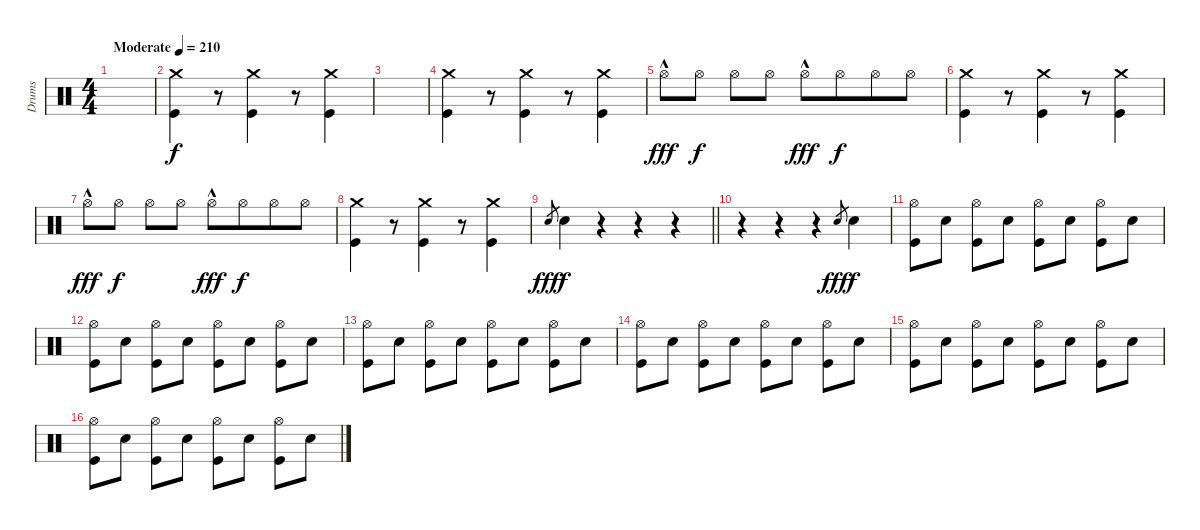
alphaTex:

\track ("Drums" "Drums") {instrument percussion}
\staff {score}
\articulation defaults
\ts (4 4)
\tempo (210 "Moderate")
\clef neutral
\ks c
|
("Crash medium (hit)" "Kick (hit)").4 r.8{beam merge} ("Crash medium (hit)" "Kick (hit)").4 r.8 ("Crash medium (hit)" "Kick (hit)").4 |
|
("Crash medium (hit)" "Kick (hit)").4 r.8{beam merge} ("Crash medium (hit)" "Kick (hit)").4 r.8 ("Crash medium (hit)" "Kick (hit)").4 |
"Hi-Hat (open)"{hac}.8{dy fff} "Hi-Hat (open)".8{dy f} "Hi-Hat (open)".8 "Hi-Hat (open)".8 "Hi-Hat (open)"{hac}.8{dy fff} "Hi-Hat (open)".8{dy f beam merge} "Hi-Hat (open)".8 "Hi-Hat (open)".8 |
("Crash medium (hit)" "Kick (hit)").4 r.8{beam merge} ("Crash medium (hit)" "Kick (hit)").4 r.8 ("Crash medium (hit)" "Kick (hit)").4 |
"Hi-Hat (open)"{hac}.8{dy fff} "Hi-Hat (open)".8{dy f} "Hi-Hat (open)".8 "Hi-Hat (open)".8 "Hi-Hat (open)"{hac}.8{dy fff} "Hi-Hat (open)".8{dy f beam merge} "Hi-Hat (open)".8 "Hi-Hat (open)".8 |
("Crash medium (hit)" "Kick (hit)").4 r.8{beam merge} ("Crash medium (hit)" "Kick (hit)").4 r.8 ("Crash medium (hit)" "Kick (hit)").4 |
\barLineRight lightlight "Snare (hit)".8{gr dy fff} "Electric Snare (hit)".4{dy f}
r.4 r.4 r.4 |
r.4 r.4 r.4 "Snare (hit)".8{gr dy fff} "Electric Snare (hit)".4{dy f} |
("Hi-Hat (open)" "Kick (hit)").8 "Electric Snare (hit)".8 ("Hi-Hat (open)" "Kick (hit)").8 "Electric Snare (hit)".8 ("Hi-Hat (open)" "Kick (hit)").8 "Electric Snare (hit)".8 ("Hi-Hat (open)" "Kick (hit)").8 "Electric Snare (hit)".8 |
("Hi-Hat (open)" "Kick (hit)").8 "Electric Snare (hit)".8 ("Hi-Hat (open)" "Kick (hit)").8 "Electric Snare (hit)".8 ("Hi-Hat (open)" "Kick (hit)").8 "Electric Snare (hit)".8 ("Hi-Hat (open)" "Kick (hit)").8 "Electric Snare (hit)".8 |
("Hi-Hat (open)" "Kick (hit)").8 "Electric Snare (hit)".8 ("Hi-Hat (open)" "Kick (hit)").8 "Electric Snare (hit)".8 ("Hi-Hat (open)" "Kick (hit)").8 "Electric Snare (hit)".8 ("Hi-Hat (open)" "Kick (hit)").8 "Electric Snare (hit)".8 |
("Hi-Hat (open)" "Kick (hit)").8 "Electric Snare (hit)".8 ("Hi-Hat (open)" "Kick (hit)").8 "Electric Snare (hit)".8 ("Hi-Hat (open)" "Kick (hit)").8 "Electric Snare (hit)".8 ("Hi-Hat (open)" "Kick (hit)").8 "Electric Snare (hit)".8 |
("Hi-Hat (open)" "Kick (hit)").8 "Electric Snare (hit)".8 ("Hi-Hat (open)" "Kick (hit)").8 "Electric Snare (hit)".8 ("Hi-Hat (open)" "Kick (hit)").8 "Electric Snare (hit)".8 ("Hi-Hat (open)" "Kick (hit)").8 "Electric Snare (hit)".8 |
("Hi-Hat (open)" "Kick (hit)").8 "Electric Snare (hit)".8 ("Hi-Hat (open)" "Kick (hit)").8 "Electric Snare (hit)".8 ("Hi-Hat (open)" "Kick (hit)").8 "Electric Snare (hit)".8 ("Hi-Hat (open)" "Kick (hit)").8 "Electric Snare (hit)".8
